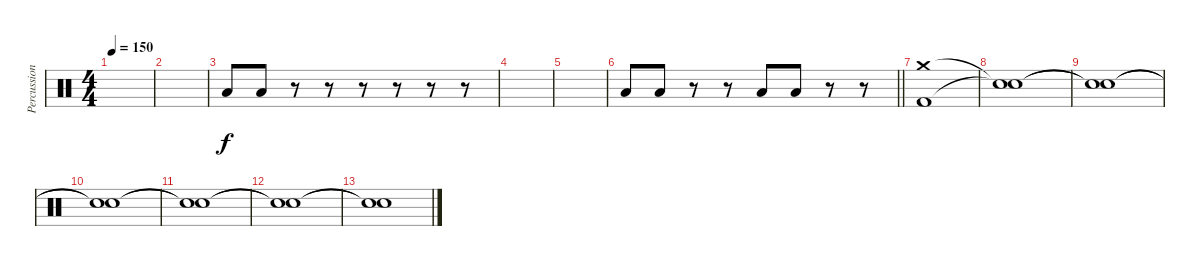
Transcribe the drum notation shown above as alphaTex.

\track ("Percussion" "Percussion") {instrument percussion}
\staff {score}
\articulation defaults
\ts (4 4)
\tempo 150
\clef neutral
\ks c
|
|
"Low Tom (hit)".8 "Low Tom (hit)".8 r.8 r.8 r.8 r.8 r.8 r.8 |
|
|
\barLineRight lightlight "Low Tom (hit)".8 "Low Tom (hit)".8
r.8 r.8 "Low Tom (hit)".8 "Low Tom (hit)".8 r.8 r.8 |
("Crash medium (hit)" "Kick (hit) 2").1 |
("Snare (hit)"{t} "Snare (hit)"{t}).1 |
("Snare (hit)"{t} "Snare (hit)"{t}).1 |
("Snare (hit)"{t} "Snare (hit)"{t}).1 |
("Snare (hit)"{t} "Snare (hit)"{t}).1{volume 0} |
("Snare (hit)"{t} "Snare (hit)"{t}).1 |
("Snare (hit)"{t} "Snare (hit)"{t}).1
